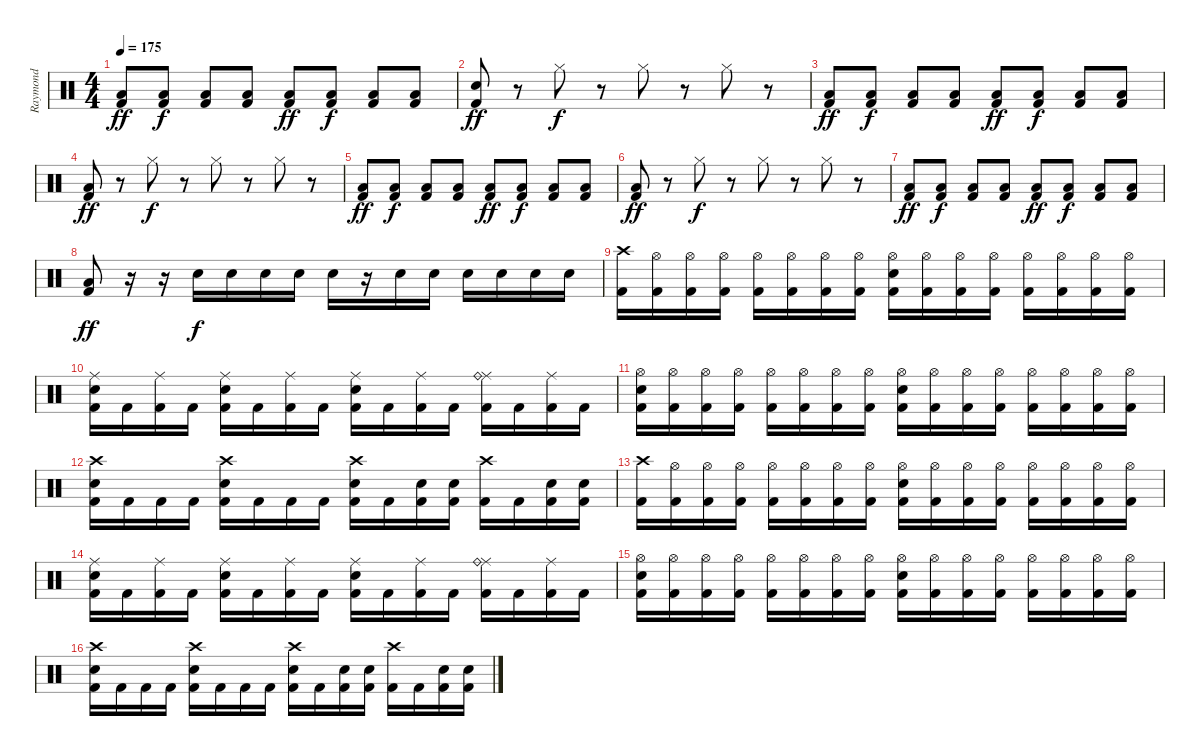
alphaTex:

\track ("Raymond" "Raymond") {instrument percussion}
\staff {score}
\articulation defaults
\ts (4 4)
\tempo 175
\clef neutral
\ks c
("Low Floor Tom (hit)" "Kick (hit) 2").8{dy ff} ("Low Floor Tom (hit)" "Kick (hit) 2").8{dy f} ("Low Floor Tom (hit)" "Kick (hit) 2").8 ("Low Floor Tom (hit)" "Kick (hit) 2").8 ("Low Floor Tom (hit)" "Kick (hit) 2").8{dy ff} ("Low Floor Tom (hit)" "Kick (hit) 2").8{dy f} ("Low Floor Tom (hit)" "Kick (hit) 2").8 ("Low Floor Tom (hit)" "Kick (hit) 2").8 |
("Electric Snare (hit)" "Kick (hit) 2").8{dy ff} r.8 "Hi-Hat (closed)".8{dy f} r.8 "Hi-Hat (closed)".8 r.8 "Hi-Hat (closed)".8 r.8 |
("Low Floor Tom (hit)" "Kick (hit) 2").8{dy ff} ("Low Floor Tom (hit)" "Kick (hit) 2").8{dy f} ("Low Floor Tom (hit)" "Kick (hit) 2").8 ("Low Floor Tom (hit)" "Kick (hit) 2").8 ("Low Floor Tom (hit)" "Kick (hit) 2").8{dy ff} ("Low Floor Tom (hit)" "Kick (hit) 2").8{dy f} ("Low Floor Tom (hit)" "Kick (hit) 2").8 ("Low Floor Tom (hit)" "Kick (hit) 2").8 |
("Low Floor Tom (hit)" "Kick (hit) 2").8{dy ff} r.8 "Hi-Hat (closed)".8{dy f} r.8 "Hi-Hat (closed)".8 r.8 "Hi-Hat (closed)".8 r.8 |
("Low Floor Tom (hit)" "Kick (hit) 2").8{dy ff} ("Low Floor Tom (hit)" "Kick (hit) 2").8{dy f} ("Low Floor Tom (hit)" "Kick (hit) 2").8 ("Low Floor Tom (hit)" "Kick (hit) 2").8 ("Low Floor Tom (hit)" "Kick (hit) 2").8{dy ff} ("Low Floor Tom (hit)" "Kick (hit) 2").8{dy f} ("Low Floor Tom (hit)" "Kick (hit) 2").8 ("Low Floor Tom (hit)" "Kick (hit) 2").8 |
("Low Floor Tom (hit)" "Kick (hit) 2").8{dy ff} r.8 "Hi-Hat (closed)".8{dy f} r.8 "Hi-Hat (closed)".8 r.8 "Hi-Hat (closed)".8 r.8 |
("Low Floor Tom (hit)" "Kick (hit) 2").8{dy ff} ("Low Floor Tom (hit)" "Kick (hit) 2").8{dy f} ("Low Floor Tom (hit)" "Kick (hit) 2").8 ("Low Floor Tom (hit)" "Kick (hit) 2").8 ("Low Floor Tom (hit)" "Kick (hit) 2").8{dy ff} ("Low Floor Tom (hit)" "Kick (hit) 2").8{dy f} ("Low Floor Tom (hit)" "Kick (hit) 2").8 ("Low Floor Tom (hit)" "Kick (hit) 2").8 |
("Low Floor Tom (hit)" "Kick (hit) 2").8{dy ff} r.16 r.16 "Electric Snare (hit)".16{dy f} "Electric Snare (hit)".16 "Electric Snare (hit)".16 "Electric Snare (hit)".16 "Electric Snare (hit)".16 r.16 "Electric Snare (hit)".16 "Electric Snare (hit)".16 "Electric Snare (hit)".16 "Electric Snare (hit)".16 "Electric Snare (hit)".16 "Electric Snare (hit)".16 |
("Crash high (hit)" "Kick (hit) 2").16 ("Hi-Hat (open)" "Kick (hit) 2").16 ("Hi-Hat (open)" "Kick (hit) 2").16 ("Hi-Hat (open)" "Kick (hit) 2").16 ("Hi-Hat (open)" "Kick (hit) 2").16 ("Hi-Hat (open)" "Kick (hit) 2").16 ("Hi-Hat (open)" "Kick (hit) 2").16 ("Hi-Hat (open)" "Kick (hit) 2").16 ("Hi-Hat (open)" "Electric Snare (hit)" "Kick (hit) 2").16 ("Hi-Hat (open)" "Kick (hit) 2").16 ("Hi-Hat (open)" "Kick (hit) 2").16 ("Hi-Hat (open)" "Kick (hit) 2").16 ("Hi-Hat (open)" "Kick (hit) 2").16 ("Hi-Hat (open)" "Kick (hit) 2").16 ("Hi-Hat (open)" "Kick (hit) 2").16 ("Hi-Hat (open)" "Kick (hit) 2").16 |
("Ride (middle)" "Electric Snare (hit)" "Kick (hit) 2").16 "Kick (hit) 2".16 ("Ride (middle)" "Kick (hit) 2").16 "Kick (hit) 2".16 ("Ride (middle)" "Electric Snare (hit)" "Kick (hit) 2").16 "Kick (hit) 2".16 ("Ride (middle)" "Kick (hit) 2").16 "Kick (hit) 2".16 ("Ride (middle)" "Electric Snare (hit)" "Kick (hit) 2").16 "Kick (hit) 2".16 ("Ride (middle)" "Kick (hit) 2").16 "Kick (hit) 2".16 ("Ride (middle)" "Ride (bell)" "Kick (hit) 2").16 "Kick (hit) 2".16 ("Ride (middle)" "Kick (hit) 2").16 "Kick (hit) 2".16 |
("Hi-Hat (open)" "Electric Snare (hit)" "Kick (hit) 2").16 ("Hi-Hat (open)" "Kick (hit) 2").16 ("Hi-Hat (open)" "Kick (hit) 2").16 ("Hi-Hat (open)" "Kick (hit) 2").16 ("Hi-Hat (open)" "Kick (hit) 2").16 ("Hi-Hat (open)" "Kick (hit) 2").16 ("Hi-Hat (open)" "Kick (hit) 2").16 ("Hi-Hat (open)" "Kick (hit) 2").16 ("Hi-Hat (open)" "Electric Snare (hit)" "Kick (hit) 2").16 ("Hi-Hat (open)" "Kick (hit) 2").16 ("Hi-Hat (open)" "Kick (hit) 2").16 ("Hi-Hat (open)" "Kick (hit) 2").16 ("Hi-Hat (open)" "Kick (hit) 2").16 ("Hi-Hat (open)" "Kick (hit) 2").16 ("Hi-Hat (open)" "Kick (hit) 2").16 ("Hi-Hat (open)" "Kick (hit) 2").16 |
("Crash high (hit)" "Electric Snare (hit)" "Kick (hit) 2").16 "Kick (hit) 2".16 "Kick (hit) 2".16 "Kick (hit) 2".16 ("Crash high (hit)" "Electric Snare (hit)" "Kick (hit) 2").16 "Kick (hit) 2".16 "Kick (hit) 2".16 "Kick (hit) 2".16 ("Crash high (hit)" "Electric Snare (hit)" "Kick (hit) 2").16 "Kick (hit) 2".16 ("Electric Snare (hit)" "Kick (hit) 2").16 ("Electric Snare (hit)" "Kick (hit) 2").16 ("Crash high (hit)" "Kick (hit) 2").16 "Kick (hit) 2".16 ("Electric Snare (hit)" "Kick (hit) 2").16 ("Electric Snare (hit)" "Kick (hit) 2").16 |
("Crash high (hit)" "Kick (hit) 2").16 ("Hi-Hat (open)" "Kick (hit) 2").16 ("Hi-Hat (open)" "Kick (hit) 2").16 ("Hi-Hat (open)" "Kick (hit) 2").16 ("Hi-Hat (open)" "Kick (hit) 2").16 ("Hi-Hat (open)" "Kick (hit) 2").16 ("Hi-Hat (open)" "Kick (hit) 2").16 ("Hi-Hat (open)" "Kick (hit) 2").16 ("Hi-Hat (open)" "Electric Snare (hit)" "Kick (hit) 2").16 ("Hi-Hat (open)" "Kick (hit) 2").16 ("Hi-Hat (open)" "Kick (hit) 2").16 ("Hi-Hat (open)" "Kick (hit) 2").16 ("Hi-Hat (open)" "Kick (hit) 2").16 ("Hi-Hat (open)" "Kick (hit) 2").16 ("Hi-Hat (open)" "Kick (hit) 2").16 ("Hi-Hat (open)" "Kick (hit) 2").16 |
("Ride (middle)" "Electric Snare (hit)" "Kick (hit) 2").16 "Kick (hit) 2".16 ("Ride (middle)" "Kick (hit) 2").16 "Kick (hit) 2".16 ("Ride (middle)" "Electric Snare (hit)" "Kick (hit) 2").16 "Kick (hit) 2".16 ("Ride (middle)" "Kick (hit) 2").16 "Kick (hit) 2".16 ("Ride (middle)" "Electric Snare (hit)" "Kick (hit) 2").16 "Kick (hit) 2".16 ("Ride (middle)" "Kick (hit) 2").16 "Kick (hit) 2".16 ("Ride (middle)" "Ride (bell)" "Kick (hit) 2").16 "Kick (hit) 2".16 ("Ride (middle)" "Kick (hit) 2").16 "Kick (hit) 2".16 |
("Hi-Hat (open)" "Electric Snare (hit)" "Kick (hit) 2").16 ("Hi-Hat (open)" "Kick (hit) 2").16 ("Hi-Hat (open)" "Kick (hit) 2").16 ("Hi-Hat (open)" "Kick (hit) 2").16 ("Hi-Hat (open)" "Kick (hit) 2").16 ("Hi-Hat (open)" "Kick (hit) 2").16 ("Hi-Hat (open)" "Kick (hit) 2").16 ("Hi-Hat (open)" "Kick (hit) 2").16 ("Hi-Hat (open)" "Electric Snare (hit)" "Kick (hit) 2").16 ("Hi-Hat (open)" "Kick (hit) 2").16 ("Hi-Hat (open)" "Kick (hit) 2").16 ("Hi-Hat (open)" "Kick (hit) 2").16 ("Hi-Hat (open)" "Kick (hit) 2").16 ("Hi-Hat (open)" "Kick (hit) 2").16 ("Hi-Hat (open)" "Kick (hit) 2").16 ("Hi-Hat (open)" "Kick (hit) 2").16 |
("Crash high (hit)" "Electric Snare (hit)" "Kick (hit) 2").16 "Kick (hit) 2".16 "Kick (hit) 2".16 "Kick (hit) 2".16 ("Crash high (hit)" "Electric Snare (hit)" "Kick (hit) 2").16 "Kick (hit) 2".16 "Kick (hit) 2".16 "Kick (hit) 2".16 ("Crash high (hit)" "Electric Snare (hit)" "Kick (hit) 2").16 "Kick (hit) 2".16 ("Electric Snare (hit)" "Kick (hit) 2").16 ("Electric Snare (hit)" "Kick (hit) 2").16 ("Crash high (hit)" "Kick (hit) 2").16 "Kick (hit) 2".16 ("Electric Snare (hit)" "Kick (hit) 2").16 ("Electric Snare (hit)" "Kick (hit) 2").16
